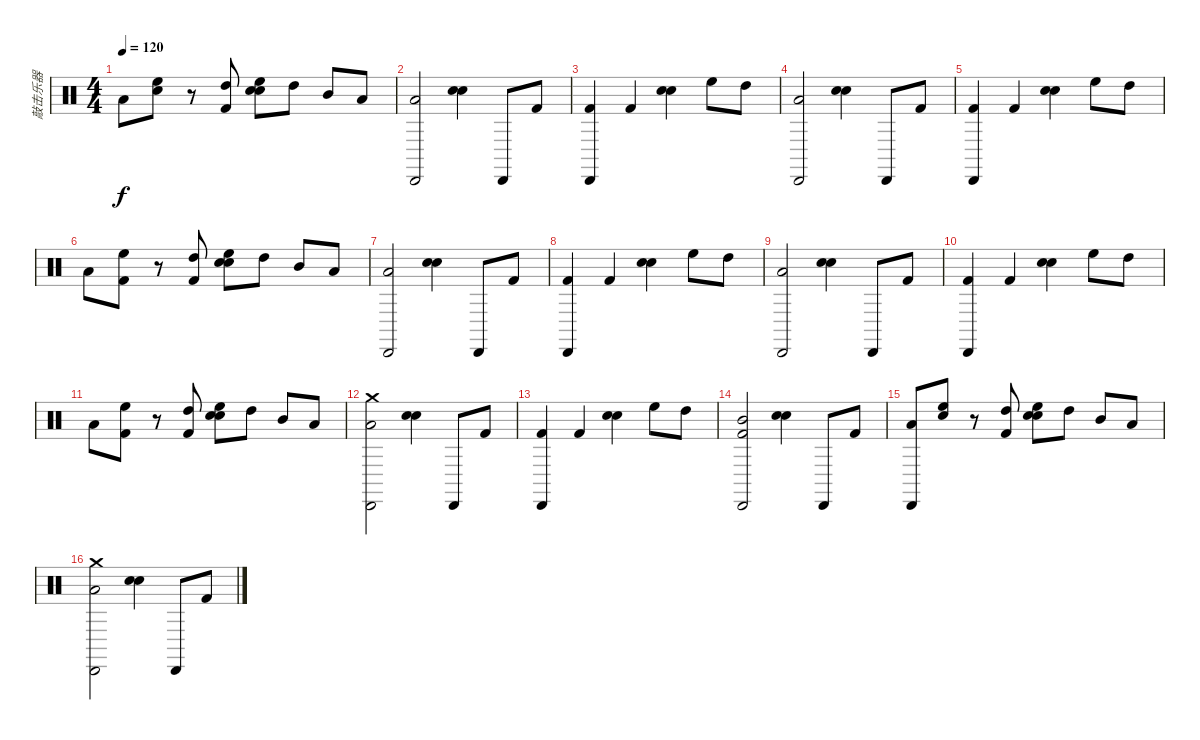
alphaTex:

\track ("敲击乐器" "敲击乐器") {instrument percussion}
\staff {score}
\articulation defaults
\ts (4 4)
\tempo 120
\clef neutral
\ks c "Low Tom (hit)".8{dy f}
("High Floor Tom (hit)" "Electric Snare (hit)").8 r.8 ("High Tom (hit)" "Kick (hit) 2").8 ("High Floor Tom (hit)" "Electric Snare (hit)" "Hand Clap (hit)").8 "High Tom (hit)".8 "Mid Tom (hit)".8 "Low Tom (hit)".8 |
("Low Tom (hit)" "Cabasa (hit)").2 ("Electric Snare (hit)" "Hand Clap (hit)").4 "Cabasa (hit)".8 "Kick (hit) 2".8 |
("Kick (hit) 2" "Cabasa (hit)").4 "Kick (hit) 2".4 ("Electric Snare (hit)" "Hand Clap (hit)").4 "High Floor Tom (hit)".8 "High Tom (hit)".8 |
("Low Tom (hit)" "Cabasa (hit)").2 ("Electric Snare (hit)" "Hand Clap (hit)").4 "Cabasa (hit)".8 "Kick (hit) 2".8 |
("Kick (hit) 2" "Cabasa (hit)").4 "Kick (hit) 2".4 ("Electric Snare (hit)" "Hand Clap (hit)").4 "High Floor Tom (hit)".8 "High Tom (hit)".8 |
"Low Tom (hit)".8 ("High Floor Tom (hit)" "Kick (hit) 2").8 r.8 ("High Tom (hit)" "Kick (hit) 2").8 ("High Floor Tom (hit)" "Electric Snare (hit)" "Hand Clap (hit)").8 "High Tom (hit)".8 "Mid Tom (hit)".8 "Low Tom (hit)".8 |
("Low Tom (hit)" "Cabasa (hit)").2 ("Electric Snare (hit)" "Hand Clap (hit)").4 "Cabasa (hit)".8 "Kick (hit) 2".8 |
("Kick (hit) 2" "Cabasa (hit)").4 "Kick (hit) 2".4 ("Electric Snare (hit)" "Hand Clap (hit)").4 "High Floor Tom (hit)".8 "High Tom (hit)".8 |
("Low Tom (hit)" "Cabasa (hit)").2 ("Electric Snare (hit)" "Hand Clap (hit)").4 "Cabasa (hit)".8 "Kick (hit) 2".8 |
("Kick (hit) 2" "Cabasa (hit)").4 "Kick (hit) 2".4 ("Electric Snare (hit)" "Hand Clap (hit)").4 "High Floor Tom (hit)".8 "High Tom (hit)".8 |
"Low Tom (hit)".8 ("High Floor Tom (hit)" "Kick (hit) 2").8 r.8 ("High Tom (hit)" "Kick (hit) 2").8 ("High Floor Tom (hit)" "Electric Snare (hit)" "Hand Clap (hit)").8 "High Tom (hit)".8 "Mid Tom (hit)".8 "Low Tom (hit)".8 |
("Crash medium (hit)" "Low Tom (hit)" "Cabasa (hit)").2 ("Electric Snare (hit)" "Hand Clap (hit)").4 "Cabasa (hit)".8 "Kick (hit) 2".8 |
("Kick (hit) 2" "Cabasa (hit)").4 "Kick (hit) 2".4 ("Electric Snare (hit)" "Hand Clap (hit)").4 "High Floor Tom (hit)".8 "High Tom (hit)".8 |
("Mid Tom (hit)" "Kick (hit) 2" "Cabasa (hit)").2 ("Electric Snare (hit)" "Hand Clap (hit)").4 "Cabasa (hit)".8 "Kick (hit) 2".8 |
("Low Tom (hit)" "Cabasa (hit)").8 ("High Floor Tom (hit)" "Electric Snare (hit)").8 r.8 ("High Tom (hit)" "Kick (hit) 2").8 ("High Floor Tom (hit)" "Electric Snare (hit)" "Hand Clap (hit)").8 "High Tom (hit)".8 "Mid Tom (hit)".8 "Low Tom (hit)".8 |
("Crash medium (hit)" "Low Tom (hit)" "Cabasa (hit)").2 ("Electric Snare (hit)" "Hand Clap (hit)").4 "Cabasa (hit)".8 "Kick (hit) 2".8
